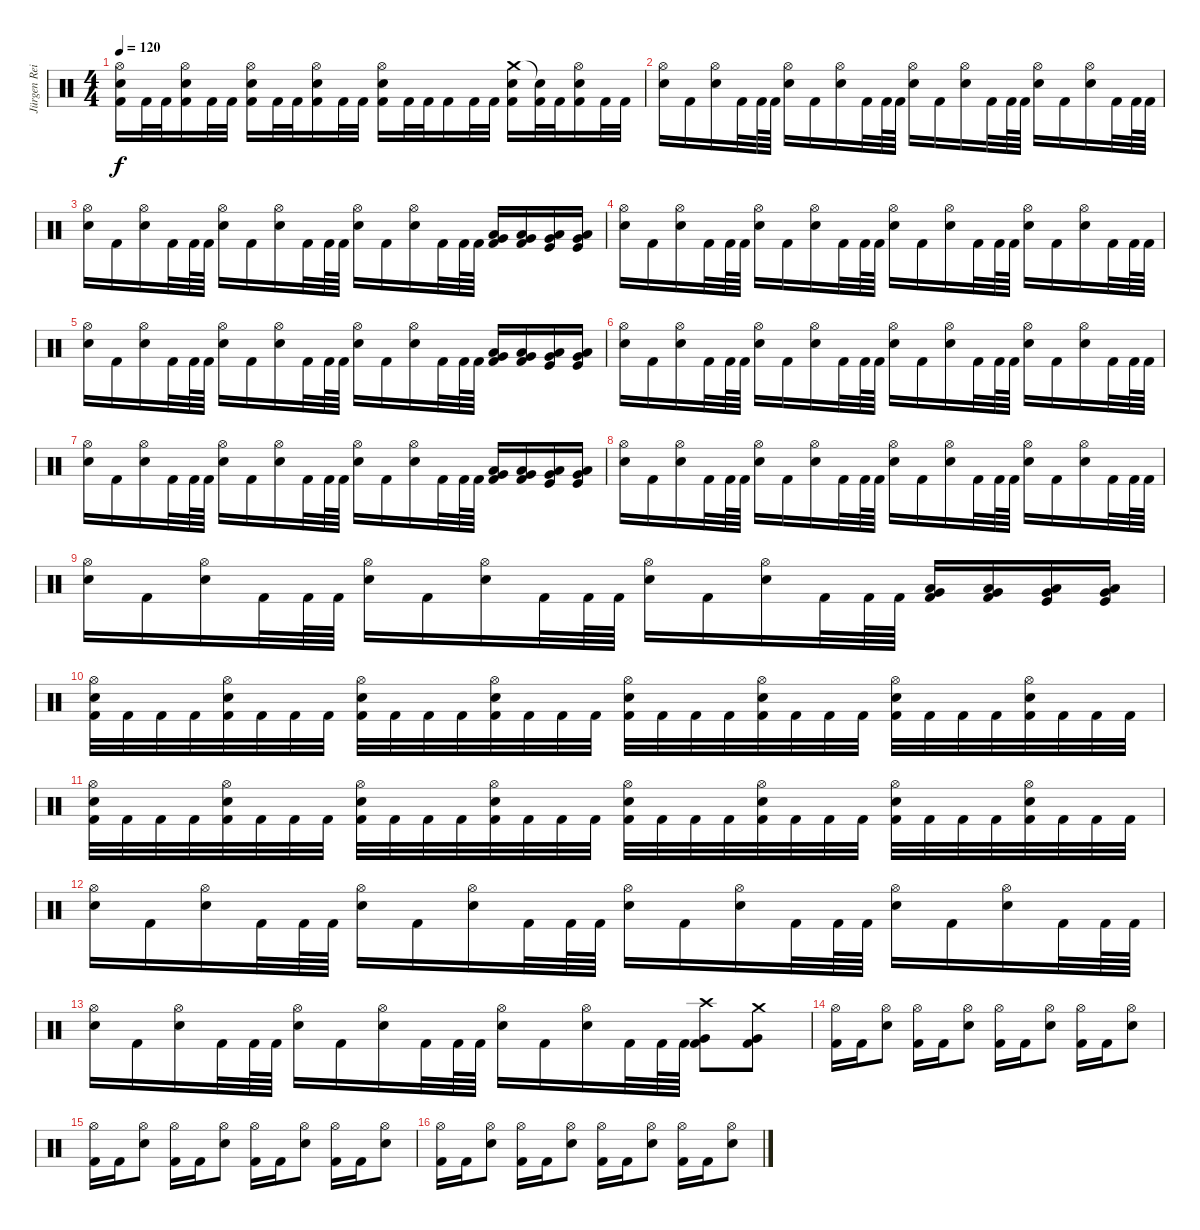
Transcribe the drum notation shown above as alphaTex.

\track ("Jürgen Reil" "Jürgen Rei") {instrument percussion}
\staff {score}
\articulation defaults
\ts (4 4)
\tempo 120
\clef neutral
\ks c
("Hi-Hat (open)" "Electric Snare (hit)" "Kick (hit) 2").16{dy f} "Kick (hit) 2".32 "Kick (hit) 2".32 ("Hi-Hat (open)" "Electric Snare (hit)" "Kick (hit) 2").16 "Kick (hit) 2".32 "Kick (hit) 2".32 ("Hi-Hat (open)" "Electric Snare (hit)" "Kick (hit) 2").16 "Kick (hit) 2".32 "Kick (hit) 2".32 ("Hi-Hat (open)" "Electric Snare (hit)" "Kick (hit) 2").16 "Kick (hit) 2".32 "Kick (hit) 2".32 ("Hi-Hat (open)" "Electric Snare (hit)" "Kick (hit) 2").16 "Kick (hit) 2".32 "Kick (hit) 2".32 "Kick (hit) 2".16 "Kick (hit) 2".32 "Kick (hit) 2".32 ("Crash medium (hit)" "Electric Snare (hit)" "Kick (hit) 2").16 ("Snare (hit)"{t} "Kick (hit) 2").32 "Kick (hit) 2".32 ("Hi-Hat (open)" "Electric Snare (hit)" "Kick (hit) 2").16 "Kick (hit) 2".32 "Kick (hit) 2".32 |
("Hi-Hat (open)" "Electric Snare (hit)").16 "Kick (hit) 2".16 ("Hi-Hat (open)" "Electric Snare (hit)").16 "Kick (hit) 2".32 "Kick (hit) 2".64 "Kick (hit) 2".64 ("Hi-Hat (open)" "Electric Snare (hit)").16 "Kick (hit) 2".16 ("Hi-Hat (open)" "Electric Snare (hit)").16 "Kick (hit) 2".32 "Kick (hit) 2".64 "Kick (hit) 2".64 ("Hi-Hat (open)" "Electric Snare (hit)").16 "Kick (hit) 2".16 ("Hi-Hat (open)" "Electric Snare (hit)").16 "Kick (hit) 2".32 "Kick (hit) 2".64 "Kick (hit) 2".64 ("Hi-Hat (open)" "Electric Snare (hit)").16 "Kick (hit) 2".16 ("Hi-Hat (open)" "Electric Snare (hit)").16 "Kick (hit) 2".32 "Kick (hit) 2".64 "Kick (hit) 2".64 |
("Hi-Hat (open)" "Electric Snare (hit)").16 "Kick (hit) 2".16 ("Hi-Hat (open)" "Electric Snare (hit)").16 "Kick (hit) 2".32 "Kick (hit) 2".64 "Kick (hit) 2".64 ("Hi-Hat (open)" "Electric Snare (hit)").16 "Kick (hit) 2".16 ("Hi-Hat (open)" "Electric Snare (hit)").16 "Kick (hit) 2".32 "Kick (hit) 2".64 "Kick (hit) 2".64 ("Hi-Hat (open)" "Electric Snare (hit)").16 "Kick (hit) 2".16 ("Hi-Hat (open)" "Electric Snare (hit)").16 "Kick (hit) 2".32 "Kick (hit) 2".64 "Kick (hit) 2".64 ("Low Tom (hit)" "Very Low Tom (hit)" "Kick (hit) 2").16 ("Low Tom (hit)" "Very Low Tom (hit)" "Kick (hit) 2").16 ("Low Tom (hit)" "Very Low Tom (hit)" "Kick (hit)").16 ("Low Tom (hit)" "Very Low Tom (hit)" "Kick (hit)").16 |
("Hi-Hat (open)" "Electric Snare (hit)").16 "Kick (hit) 2".16 ("Hi-Hat (open)" "Electric Snare (hit)").16 "Kick (hit) 2".32 "Kick (hit) 2".64 "Kick (hit) 2".64 ("Hi-Hat (open)" "Electric Snare (hit)").16 "Kick (hit) 2".16 ("Hi-Hat (open)" "Electric Snare (hit)").16 "Kick (hit) 2".32 "Kick (hit) 2".64 "Kick (hit) 2".64 ("Hi-Hat (open)" "Electric Snare (hit)").16 "Kick (hit) 2".16 ("Hi-Hat (open)" "Electric Snare (hit)").16 "Kick (hit) 2".32 "Kick (hit) 2".64 "Kick (hit) 2".64 ("Hi-Hat (open)" "Electric Snare (hit)").16 "Kick (hit) 2".16 ("Hi-Hat (open)" "Electric Snare (hit)").16 "Kick (hit) 2".32 "Kick (hit) 2".64 "Kick (hit) 2".64 |
("Hi-Hat (open)" "Electric Snare (hit)").16 "Kick (hit) 2".16 ("Hi-Hat (open)" "Electric Snare (hit)").16 "Kick (hit) 2".32 "Kick (hit) 2".64 "Kick (hit) 2".64 ("Hi-Hat (open)" "Electric Snare (hit)").16 "Kick (hit) 2".16 ("Hi-Hat (open)" "Electric Snare (hit)").16 "Kick (hit) 2".32 "Kick (hit) 2".64 "Kick (hit) 2".64 ("Hi-Hat (open)" "Electric Snare (hit)").16 "Kick (hit) 2".16 ("Hi-Hat (open)" "Electric Snare (hit)").16 "Kick (hit) 2".32 "Kick (hit) 2".64 "Kick (hit) 2".64 ("Low Tom (hit)" "Very Low Tom (hit)" "Kick (hit) 2").16 ("Low Tom (hit)" "Very Low Tom (hit)" "Kick (hit) 2").16 ("Low Tom (hit)" "Very Low Tom (hit)" "Kick (hit)").16 ("Low Tom (hit)" "Very Low Tom (hit)" "Kick (hit)").16 |
("Hi-Hat (open)" "Electric Snare (hit)").16 "Kick (hit) 2".16 ("Hi-Hat (open)" "Electric Snare (hit)").16 "Kick (hit) 2".32 "Kick (hit) 2".64 "Kick (hit) 2".64 ("Hi-Hat (open)" "Electric Snare (hit)").16 "Kick (hit) 2".16 ("Hi-Hat (open)" "Electric Snare (hit)").16 "Kick (hit) 2".32 "Kick (hit) 2".64 "Kick (hit) 2".64 ("Hi-Hat (open)" "Electric Snare (hit)").16 "Kick (hit) 2".16 ("Hi-Hat (open)" "Electric Snare (hit)").16 "Kick (hit) 2".32 "Kick (hit) 2".64 "Kick (hit) 2".64 ("Hi-Hat (open)" "Electric Snare (hit)").16 "Kick (hit) 2".16 ("Hi-Hat (open)" "Electric Snare (hit)").16 "Kick (hit) 2".32 "Kick (hit) 2".64 "Kick (hit) 2".64 |
("Hi-Hat (open)" "Electric Snare (hit)").16 "Kick (hit) 2".16 ("Hi-Hat (open)" "Electric Snare (hit)").16 "Kick (hit) 2".32 "Kick (hit) 2".64 "Kick (hit) 2".64 ("Hi-Hat (open)" "Electric Snare (hit)").16 "Kick (hit) 2".16 ("Hi-Hat (open)" "Electric Snare (hit)").16 "Kick (hit) 2".32 "Kick (hit) 2".64 "Kick (hit) 2".64 ("Hi-Hat (open)" "Electric Snare (hit)").16 "Kick (hit) 2".16 ("Hi-Hat (open)" "Electric Snare (hit)").16 "Kick (hit) 2".32 "Kick (hit) 2".64 "Kick (hit) 2".64 ("Low Tom (hit)" "Very Low Tom (hit)" "Kick (hit) 2").16 ("Low Tom (hit)" "Very Low Tom (hit)" "Kick (hit) 2").16 ("Low Tom (hit)" "Very Low Tom (hit)" "Kick (hit)").16 ("Low Tom (hit)" "Very Low Tom (hit)" "Kick (hit)").16 |
("Hi-Hat (open)" "Electric Snare (hit)").16 "Kick (hit) 2".16 ("Hi-Hat (open)" "Electric Snare (hit)").16 "Kick (hit) 2".32 "Kick (hit) 2".64 "Kick (hit) 2".64 ("Hi-Hat (open)" "Electric Snare (hit)").16 "Kick (hit) 2".16 ("Hi-Hat (open)" "Electric Snare (hit)").16 "Kick (hit) 2".32 "Kick (hit) 2".64 "Kick (hit) 2".64 ("Hi-Hat (open)" "Electric Snare (hit)").16 "Kick (hit) 2".16 ("Hi-Hat (open)" "Electric Snare (hit)").16 "Kick (hit) 2".32 "Kick (hit) 2".64 "Kick (hit) 2".64 ("Hi-Hat (open)" "Electric Snare (hit)").16 "Kick (hit) 2".16 ("Hi-Hat (open)" "Electric Snare (hit)").16 "Kick (hit) 2".32 "Kick (hit) 2".64 "Kick (hit) 2".64 |
("Hi-Hat (open)" "Electric Snare (hit)").16 "Kick (hit) 2".16 ("Hi-Hat (open)" "Electric Snare (hit)").16 "Kick (hit) 2".32 "Kick (hit) 2".64 "Kick (hit) 2".64 ("Hi-Hat (open)" "Electric Snare (hit)").16 "Kick (hit) 2".16 ("Hi-Hat (open)" "Electric Snare (hit)").16 "Kick (hit) 2".32 "Kick (hit) 2".64 "Kick (hit) 2".64 ("Hi-Hat (open)" "Electric Snare (hit)").16 "Kick (hit) 2".16 ("Hi-Hat (open)" "Electric Snare (hit)").16 "Kick (hit) 2".32 "Kick (hit) 2".64 "Kick (hit) 2".64 ("Low Tom (hit)" "Very Low Tom (hit)" "Kick (hit) 2").16 ("Low Tom (hit)" "Very Low Tom (hit)" "Kick (hit) 2").16 ("Low Tom (hit)" "Very Low Tom (hit)" "Kick (hit)").16 ("Low Tom (hit)" "Very Low Tom (hit)" "Kick (hit)").16 |
("Hi-Hat (open)" "Electric Snare (hit)" "Kick (hit) 2").32 "Kick (hit) 2".32 "Kick (hit) 2".32 "Kick (hit) 2".32 ("Hi-Hat (open)" "Electric Snare (hit)" "Kick (hit) 2").32 "Kick (hit) 2".32 "Kick (hit) 2".32 "Kick (hit) 2".32 ("Hi-Hat (open)" "Electric Snare (hit)" "Kick (hit) 2").32 "Kick (hit) 2".32 "Kick (hit) 2".32 "Kick (hit) 2".32 ("Hi-Hat (open)" "Electric Snare (hit)" "Kick (hit) 2").32 "Kick (hit) 2".32 "Kick (hit) 2".32 "Kick (hit) 2".32 ("Hi-Hat (open)" "Electric Snare (hit)" "Kick (hit) 2").32 "Kick (hit) 2".32 "Kick (hit) 2".32 "Kick (hit) 2".32 ("Hi-Hat (open)" "Electric Snare (hit)" "Kick (hit) 2").32 "Kick (hit) 2".32 "Kick (hit) 2".32 "Kick (hit) 2".32 ("Hi-Hat (open)" "Electric Snare (hit)" "Kick (hit) 2").32 "Kick (hit) 2".32 "Kick (hit) 2".32 "Kick (hit) 2".32 ("Hi-Hat (open)" "Electric Snare (hit)" "Kick (hit) 2").32 "Kick (hit) 2".32 "Kick (hit) 2".32 "Kick (hit) 2".32 |
("Hi-Hat (open)" "Electric Snare (hit)" "Kick (hit) 2").32 "Kick (hit) 2".32 "Kick (hit) 2".32 "Kick (hit) 2".32 ("Hi-Hat (open)" "Electric Snare (hit)" "Kick (hit) 2").32 "Kick (hit) 2".32 "Kick (hit) 2".32 "Kick (hit) 2".32 ("Hi-Hat (open)" "Electric Snare (hit)" "Kick (hit) 2").32 "Kick (hit) 2".32 "Kick (hit) 2".32 "Kick (hit) 2".32 ("Hi-Hat (open)" "Electric Snare (hit)" "Kick (hit) 2").32 "Kick (hit) 2".32 "Kick (hit) 2".32 "Kick (hit) 2".32 ("Hi-Hat (open)" "Electric Snare (hit)" "Kick (hit) 2").32 "Kick (hit) 2".32 "Kick (hit) 2".32 "Kick (hit) 2".32 ("Hi-Hat (open)" "Electric Snare (hit)" "Kick (hit) 2").32 "Kick (hit) 2".32 "Kick (hit) 2".32 "Kick (hit) 2".32 ("Hi-Hat (open)" "Electric Snare (hit)" "Kick (hit) 2").32 "Kick (hit) 2".32 "Kick (hit) 2".32 "Kick (hit) 2".32 ("Hi-Hat (open)" "Electric Snare (hit)" "Kick (hit) 2").32 "Kick (hit) 2".32 "Kick (hit) 2".32 "Kick (hit) 2".32 |
("Hi-Hat (open)" "Electric Snare (hit)").16 "Kick (hit) 2".16 ("Hi-Hat (open)" "Electric Snare (hit)").16 "Kick (hit) 2".32 "Kick (hit) 2".64 "Kick (hit) 2".64 ("Hi-Hat (open)" "Electric Snare (hit)").16 "Kick (hit) 2".16 ("Hi-Hat (open)" "Electric Snare (hit)").16 "Kick (hit) 2".32 "Kick (hit) 2".64 "Kick (hit) 2".64 ("Hi-Hat (open)" "Electric Snare (hit)").16 "Kick (hit) 2".16 ("Hi-Hat (open)" "Electric Snare (hit)").16 "Kick (hit) 2".32 "Kick (hit) 2".64 "Kick (hit) 2".64 ("Hi-Hat (open)" "Electric Snare (hit)").16 "Kick (hit) 2".16 ("Hi-Hat (open)" "Electric Snare (hit)").16 "Kick (hit) 2".32 "Kick (hit) 2".64 "Kick (hit) 2".64 |
("Hi-Hat (open)" "Electric Snare (hit)").16 "Kick (hit) 2".16 ("Hi-Hat (open)" "Electric Snare (hit)").16 "Kick (hit) 2".32 "Kick (hit) 2".64 "Kick (hit) 2".64 ("Hi-Hat (open)" "Electric Snare (hit)").16 "Kick (hit) 2".16 ("Hi-Hat (open)" "Electric Snare (hit)").16 "Kick (hit) 2".32 "Kick (hit) 2".64 "Kick (hit) 2".64 ("Hi-Hat (open)" "Electric Snare (hit)").16 "Kick (hit) 2".16 ("Hi-Hat (open)" "Electric Snare (hit)").16 "Kick (hit) 2".32 "Kick (hit) 2".64 "Kick (hit) 2".64 ("Crash high (hit)" "Very Low Tom (hit)" "Kick (hit) 2").8 ("Crash medium (hit)" "Very Low Tom (hit)" "Kick (hit) 2").8 |
("Hi-Hat (open)" "Kick (hit) 2").16 "Kick (hit) 2".16 ("Hi-Hat (open)" "Electric Snare (hit)").8 ("Hi-Hat (open)" "Kick (hit) 2").16 "Kick (hit) 2".16 ("Hi-Hat (open)" "Electric Snare (hit)").8 ("Hi-Hat (open)" "Kick (hit) 2").16 "Kick (hit) 2".16 ("Hi-Hat (open)" "Electric Snare (hit)").8 ("Hi-Hat (open)" "Kick (hit) 2").16 "Kick (hit) 2".16 ("Hi-Hat (open)" "Electric Snare (hit)").8 |
("Hi-Hat (open)" "Kick (hit) 2").16 "Kick (hit) 2".16 ("Hi-Hat (open)" "Electric Snare (hit)").8 ("Hi-Hat (open)" "Kick (hit) 2").16 "Kick (hit) 2".16 ("Hi-Hat (open)" "Electric Snare (hit)").8 ("Hi-Hat (open)" "Kick (hit) 2").16 "Kick (hit) 2".16 ("Hi-Hat (open)" "Electric Snare (hit)").8 ("Hi-Hat (open)" "Kick (hit) 2").16 "Kick (hit) 2".16 ("Hi-Hat (open)" "Electric Snare (hit)").8 |
("Hi-Hat (open)" "Kick (hit) 2").16 "Kick (hit) 2".16 ("Hi-Hat (open)" "Electric Snare (hit)").8 ("Hi-Hat (open)" "Kick (hit) 2").16 "Kick (hit) 2".16 ("Hi-Hat (open)" "Electric Snare (hit)").8 ("Hi-Hat (open)" "Kick (hit) 2").16 "Kick (hit) 2".16 ("Hi-Hat (open)" "Electric Snare (hit)").8 ("Hi-Hat (open)" "Kick (hit) 2").16 "Kick (hit) 2".16 ("Hi-Hat (open)" "Electric Snare (hit)").8
